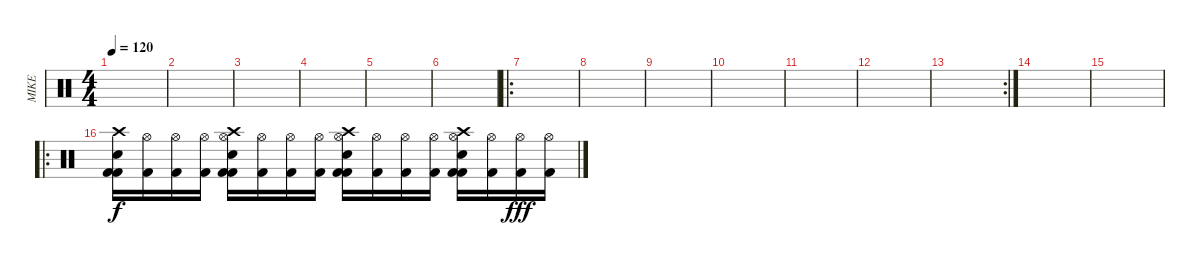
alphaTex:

\track ("MIKE" "MIKE") {instrument percussion}
\staff {score}
\articulation defaults
\ts (4 4)
\tempo 120
\clef neutral
\ks c
|
|
|
|
|
|
\ro
|
|
|
|
|
|
\rc 2
|
|
|
\ro
("Crash high (hit)" "Kick (hit) 2" "Electric Snare (hit)" "Kick (hit) 2").16 ("Hi-Hat (open)" "Kick (hit) 2").16 ("Hi-Hat (open)" "Kick (hit) 2").16 ("Hi-Hat (open)" "Kick (hit) 2").16 ("Hi-Hat (open)" "Crash high (hit)" "Kick (hit) 2" "Electric Snare (hit)" "Kick (hit) 2").16 ("Hi-Hat (open)" "Kick (hit) 2").16 ("Hi-Hat (open)" "Kick (hit) 2").16 ("Hi-Hat (open)" "Kick (hit) 2").16 ("Hi-Hat (open)" "Crash high (hit)" "Kick (hit) 2" "Electric Snare (hit)" "Kick (hit) 2").16 ("Hi-Hat (open)" "Kick (hit) 2").16 ("Hi-Hat (open)" "Kick (hit) 2").16 ("Hi-Hat (open)" "Kick (hit) 2").16 ("Hi-Hat (open)" "Crash high (hit)" "Kick (hit) 2" "Electric Snare (hit)" "Kick (hit) 2").16 ("Hi-Hat (open)" "Kick (hit) 2").16 ("Hi-Hat (open)" "Kick (hit) 2").16{dy fff} ("Hi-Hat (open)" "Kick (hit) 2").16
